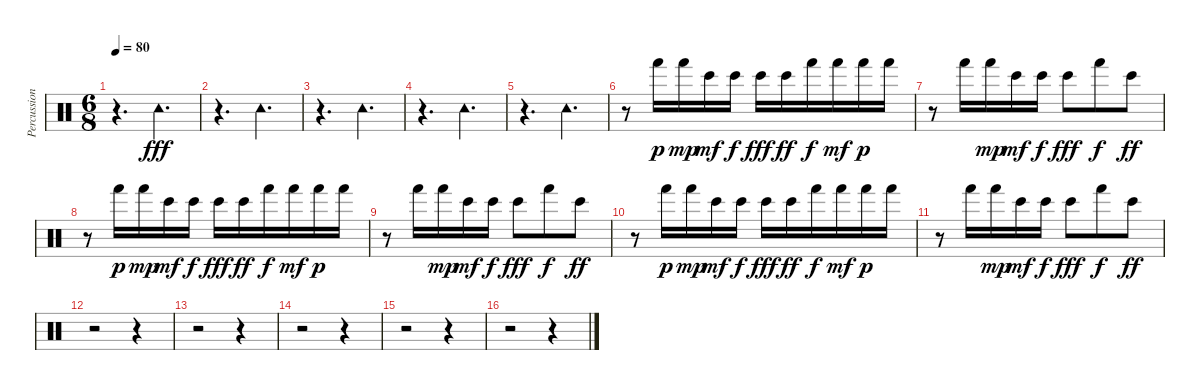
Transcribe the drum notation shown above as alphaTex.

\track ("Percussion" "Percussion") {instrument percussion}
\staff {score}
\articulation defaults
\ts (6 8)
\tempo 80
\clef neutral
\ks c
r.4{d dy fff} "Tambourine (hit)".4{d} |
r.4{d} "Tambourine (hit)".4{d} |
r.4{d} "Tambourine (hit)".4{d} |
r.4{d} "Tambourine (hit)".4{d} |
r.4{d} "Tambourine (hit)".4{d} |
r.8 "Hand (hit)".16{dy p} "Hand (hit)".16{dy mp} "Bongo High (hit)".16{dy mf} "Bongo High (hit)".16{dy f} "Bongo High (hit)".16{dy fff} "Bongo High (hit)".16{dy ff} "Hand (hit)".16{dy f} "Hand (hit)".16{dy mf} "Hand (hit)".16{dy p} "Hand (hit)".16 |
r.8 "Hand (hit)".16 "Hand (hit)".16{dy mp} "Bongo High (hit)".16{dy mf} "Bongo High (hit)".16{dy f} "Bongo High (hit)".8{dy fff} "Hand (hit)".8{dy f} "Bongo High (hit)".8{dy ff} |
r.8 "Hand (hit)".16{dy p} "Hand (hit)".16{dy mp} "Bongo High (hit)".16{dy mf} "Bongo High (hit)".16{dy f} "Bongo High (hit)".16{dy fff} "Bongo High (hit)".16{dy ff} "Hand (hit)".16{dy f} "Hand (hit)".16{dy mf} "Hand (hit)".16{dy p} "Hand (hit)".16 |
r.8 "Hand (hit)".16 "Hand (hit)".16{dy mp} "Bongo High (hit)".16{dy mf} "Bongo High (hit)".16{dy f} "Bongo High (hit)".8{dy fff} "Hand (hit)".8{dy f} "Bongo High (hit)".8{dy ff} |
r.8 "Hand (hit)".16{dy p} "Hand (hit)".16{dy mp} "Bongo High (hit)".16{dy mf} "Bongo High (hit)".16{dy f} "Bongo High (hit)".16{dy fff} "Bongo High (hit)".16{dy ff} "Hand (hit)".16{dy f} "Hand (hit)".16{dy mf} "Hand (hit)".16{dy p} "Hand (hit)".16 |
r.8 "Hand (hit)".16 "Hand (hit)".16{dy mp} "Bongo High (hit)".16{dy mf} "Bongo High (hit)".16{dy f} "Bongo High (hit)".8{dy fff} "Hand (hit)".8{dy f} "Bongo High (hit)".8{dy ff} |
r.2 r.4 |
r.2 r.4 |
r.2 r.4 |
r.2 r.4 |
r.2 r.4
